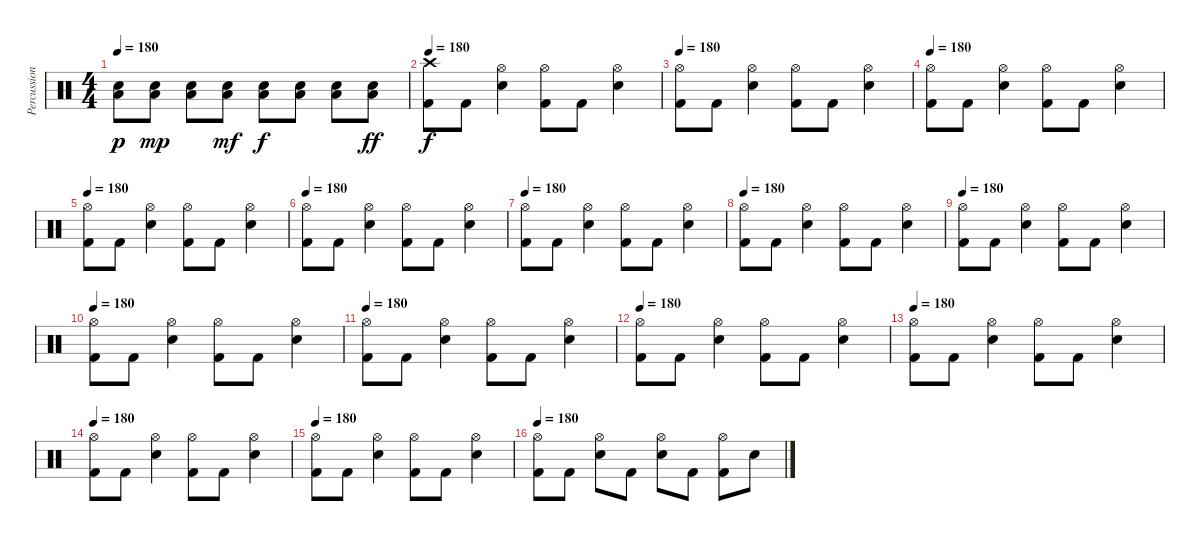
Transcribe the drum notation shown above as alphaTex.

\track ("Percussions" "Percussion") {instrument percussion}
\staff {score}
\articulation defaults
\ts (4 4)
\tempo 180
\clef neutral
\ks c
("Low Tom (hit)" "Snare (hit) 2").8{dy p} ("Low Tom (hit)" "Snare (hit) 2").8{dy mp} ("Low Tom (hit)" "Snare (hit) 2").8 ("Low Tom (hit)" "Snare (hit) 2").8{dy mf} ("Low Tom (hit)" "Snare (hit) 2").8{dy f} ("Low Tom (hit)" "Snare (hit) 2").8 ("Low Tom (hit)" "Snare (hit) 2").8 ("Low Tom (hit)" "Snare (hit) 2").8{dy ff} |
\tempo 180
("Crash high (hit)" "Kick (hit) 2").8{dy f} "Kick (hit) 2".8 ("Hi-Hat (open)" "Snare (hit) 2").4 ("Hi-Hat (open)" "Kick (hit) 2").8 "Kick (hit) 2".8 ("Hi-Hat (open)" "Snare (hit) 2").4 |
\tempo 180
("Hi-Hat (open)" "Kick (hit) 2").8 "Kick (hit) 2".8 ("Hi-Hat (open)" "Snare (hit) 2").4 ("Hi-Hat (open)" "Kick (hit) 2").8 "Kick (hit) 2".8 ("Hi-Hat (open)" "Snare (hit) 2").4 |
\tempo 180
("Hi-Hat (open)" "Kick (hit) 2").8 "Kick (hit) 2".8 ("Hi-Hat (open)" "Snare (hit) 2").4 ("Hi-Hat (open)" "Kick (hit) 2").8 "Kick (hit) 2".8 ("Hi-Hat (open)" "Snare (hit) 2").4 |
\tempo 180
("Hi-Hat (open)" "Kick (hit) 2").8 "Kick (hit) 2".8 ("Hi-Hat (open)" "Snare (hit) 2").4 ("Hi-Hat (open)" "Kick (hit) 2").8 "Kick (hit) 2".8 ("Hi-Hat (open)" "Snare (hit) 2").4 |
\tempo 180
("Hi-Hat (open)" "Kick (hit) 2").8 "Kick (hit) 2".8 ("Hi-Hat (open)" "Snare (hit) 2").4 ("Hi-Hat (open)" "Kick (hit) 2").8 "Kick (hit) 2".8 ("Hi-Hat (open)" "Snare (hit) 2").4 |
\tempo 180
("Hi-Hat (open)" "Kick (hit) 2").8 "Kick (hit) 2".8 ("Hi-Hat (open)" "Snare (hit) 2").4 ("Hi-Hat (open)" "Kick (hit) 2").8 "Kick (hit) 2".8 ("Hi-Hat (open)" "Snare (hit) 2").4 |
\tempo 180
("Hi-Hat (open)" "Kick (hit) 2").8 "Kick (hit) 2".8 ("Hi-Hat (open)" "Snare (hit) 2").4 ("Hi-Hat (open)" "Kick (hit) 2").8 "Kick (hit) 2".8 ("Hi-Hat (open)" "Snare (hit) 2").4 |
\tempo 180
("Hi-Hat (open)" "Kick (hit) 2").8 "Kick (hit) 2".8 ("Hi-Hat (open)" "Snare (hit) 2").4 ("Hi-Hat (open)" "Kick (hit) 2").8 "Kick (hit) 2".8 ("Hi-Hat (open)" "Snare (hit) 2").4 |
\tempo 180
("Hi-Hat (open)" "Kick (hit) 2").8 "Kick (hit) 2".8 ("Hi-Hat (open)" "Snare (hit) 2").4 ("Hi-Hat (open)" "Kick (hit) 2").8 "Kick (hit) 2".8 ("Hi-Hat (open)" "Snare (hit) 2").4 |
\tempo 180
("Hi-Hat (open)" "Kick (hit) 2").8 "Kick (hit) 2".8 ("Hi-Hat (open)" "Snare (hit) 2").4 ("Hi-Hat (open)" "Kick (hit) 2").8 "Kick (hit) 2".8 ("Hi-Hat (open)" "Snare (hit) 2").4 |
\tempo 180
("Hi-Hat (open)" "Kick (hit) 2").8 "Kick (hit) 2".8 ("Hi-Hat (open)" "Snare (hit) 2").4 ("Hi-Hat (open)" "Kick (hit) 2").8 "Kick (hit) 2".8 ("Hi-Hat (open)" "Snare (hit) 2").4 |
\tempo 180
("Hi-Hat (open)" "Kick (hit) 2").8 "Kick (hit) 2".8 ("Hi-Hat (open)" "Snare (hit) 2").4 ("Hi-Hat (open)" "Kick (hit) 2").8 "Kick (hit) 2".8 ("Hi-Hat (open)" "Snare (hit) 2").4 |
\tempo 180
("Hi-Hat (open)" "Kick (hit) 2").8 "Kick (hit) 2".8 ("Hi-Hat (open)" "Snare (hit) 2").4 ("Hi-Hat (open)" "Kick (hit) 2").8 "Kick (hit) 2".8 ("Hi-Hat (open)" "Snare (hit) 2").4 |
\tempo 180
("Hi-Hat (open)" "Kick (hit) 2").8 "Kick (hit) 2".8 ("Hi-Hat (open)" "Snare (hit) 2").4 ("Hi-Hat (open)" "Kick (hit) 2").8 "Kick (hit) 2".8 ("Hi-Hat (open)" "Snare (hit) 2").4 |
\tempo 180
("Hi-Hat (open)" "Kick (hit) 2").8 "Kick (hit) 2".8 ("Hi-Hat (open)" "Snare (hit) 2").8 "Kick (hit) 2".8 ("Hi-Hat (open)" "Snare (hit) 2").8 "Kick (hit) 2".8 ("Hi-Hat (open)" "Kick (hit) 2").8 "Snare (hit) 2".8
